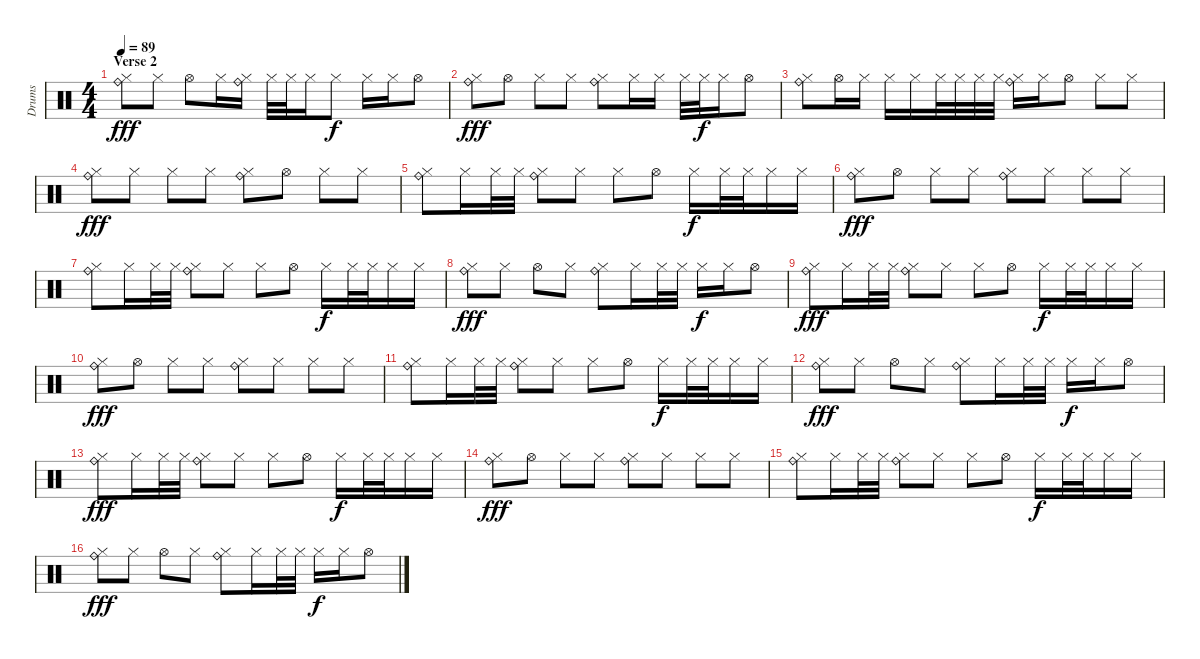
\track ("Drums" "Drums") {instrument percussion}
\staff {score}
\articulation defaults
\ts (4 4)
\section ("" "Verse 2")
\tempo 89
\clef neutral
\ks c
("Hi-Hat (closed)" "Ride (bell)").8{dy fff} "Hi-Hat (closed)".8 "Hi-Hat (open)".8 "Hi-Hat (closed)".16 ("Hi-Hat (closed)" "Ride (bell)").16 "Hi-Hat (closed)".32 "Hi-Hat (closed)".32 "Hi-Hat (closed)".16 "Hi-Hat (closed)".8{dy f} "Hi-Hat (closed)".16 "Hi-Hat (closed)".16 "Hi-Hat (open)".8 |
("Hi-Hat (closed)" "Ride (bell)").8{dy fff} "Hi-Hat (open)".8 "Hi-Hat (closed)".8 "Hi-Hat (closed)".8 ("Hi-Hat (closed)" "Ride (bell)").8 "Hi-Hat (closed)".16 "Hi-Hat (closed)".16 "Hi-Hat (closed)".32 "Hi-Hat (closed)".32{dy f} "Hi-Hat (closed)".16 "Hi-Hat (open)".8 |
("Hi-Hat (closed)" "Ride (bell)").8 "Hi-Hat (open)".16 "Hi-Hat (closed)".16 "Hi-Hat (closed)".16 "Hi-Hat (closed)".16 "Hi-Hat (closed)".32 "Hi-Hat (closed)".32 "Hi-Hat (closed)".32 "Hi-Hat (closed)".32 ("Hi-Hat (closed)" "Ride (bell)").16 "Hi-Hat (closed)".16 "Hi-Hat (open)".8 "Hi-Hat (closed)".8 "Hi-Hat (closed)".8 |
("Hi-Hat (closed)" "Ride (bell)").8{dy fff} "Hi-Hat (closed)".8 "Hi-Hat (closed)".8 "Hi-Hat (closed)".8 ("Hi-Hat (closed)" "Ride (bell)").8 "Hi-Hat (open)".8 "Hi-Hat (closed)".8 "Hi-Hat (closed)".8 |
("Hi-Hat (closed)" "Ride (bell)").8 "Hi-Hat (closed)".16 "Hi-Hat (closed)".32 "Hi-Hat (closed)".32 ("Hi-Hat (closed)" "Ride (bell)").8 "Hi-Hat (closed)".8 "Hi-Hat (closed)".8 "Hi-Hat (open)".8 "Hi-Hat (closed)".16{dy f} "Hi-Hat (closed)".32 "Hi-Hat (closed)".32 "Hi-Hat (closed)".16 "Hi-Hat (closed)".16 |
("Hi-Hat (closed)" "Ride (bell)").8{dy fff} "Hi-Hat (open)".8 "Hi-Hat (closed)".8 "Hi-Hat (closed)".8 ("Hi-Hat (closed)" "Ride (bell)").8 "Hi-Hat (closed)".8 "Hi-Hat (closed)".8 "Hi-Hat (closed)".8 |
("Hi-Hat (closed)" "Ride (bell)").8 "Hi-Hat (closed)".16 "Hi-Hat (closed)".32 "Hi-Hat (closed)".32 ("Hi-Hat (closed)" "Ride (bell)").8 "Hi-Hat (closed)".8 "Hi-Hat (closed)".8 "Hi-Hat (open)".8 "Hi-Hat (closed)".16{dy f} "Hi-Hat (closed)".32 "Hi-Hat (closed)".32 "Hi-Hat (closed)".16 "Hi-Hat (closed)".16 |
("Hi-Hat (closed)" "Ride (bell)").8{dy fff} "Hi-Hat (closed)".8 "Hi-Hat (open)".8 "Hi-Hat (closed)".8 ("Hi-Hat (closed)" "Ride (bell)").8 "Hi-Hat (closed)".16 "Hi-Hat (closed)".32 "Hi-Hat (closed)".32 "Hi-Hat (closed)".16{dy f} "Hi-Hat (closed)".16 "Hi-Hat (open)".8 |
("Hi-Hat (closed)" "Ride (bell)").8{dy fff} "Hi-Hat (closed)".16 "Hi-Hat (closed)".32 "Hi-Hat (closed)".32 ("Hi-Hat (closed)" "Ride (bell)").8 "Hi-Hat (closed)".8 "Hi-Hat (closed)".8 "Hi-Hat (open)".8 "Hi-Hat (closed)".16{dy f} "Hi-Hat (closed)".32 "Hi-Hat (closed)".32 "Hi-Hat (closed)".16 "Hi-Hat (closed)".16 |
("Hi-Hat (closed)" "Ride (bell)").8{dy fff} "Hi-Hat (open)".8 "Hi-Hat (closed)".8 "Hi-Hat (closed)".8 ("Hi-Hat (closed)" "Ride (bell)").8 "Hi-Hat (closed)".8 "Hi-Hat (closed)".8 "Hi-Hat (closed)".8 |
("Hi-Hat (closed)" "Ride (bell)").8 "Hi-Hat (closed)".16 "Hi-Hat (closed)".32 "Hi-Hat (closed)".32 ("Hi-Hat (closed)" "Ride (bell)").8 "Hi-Hat (closed)".8 "Hi-Hat (closed)".8 "Hi-Hat (open)".8 "Hi-Hat (closed)".16{dy f} "Hi-Hat (closed)".32 "Hi-Hat (closed)".32 "Hi-Hat (closed)".16 "Hi-Hat (closed)".16 |
("Hi-Hat (closed)" "Ride (bell)").8{dy fff} "Hi-Hat (closed)".8 "Hi-Hat (open)".8 "Hi-Hat (closed)".8 ("Hi-Hat (closed)" "Ride (bell)").8 "Hi-Hat (closed)".16 "Hi-Hat (closed)".32 "Hi-Hat (closed)".32 "Hi-Hat (closed)".16{dy f} "Hi-Hat (closed)".16 "Hi-Hat (open)".8 |
("Hi-Hat (closed)" "Ride (bell)").8{dy fff} "Hi-Hat (closed)".16 "Hi-Hat (closed)".32 "Hi-Hat (closed)".32 ("Hi-Hat (closed)" "Ride (bell)").8 "Hi-Hat (closed)".8 "Hi-Hat (closed)".8 "Hi-Hat (open)".8 "Hi-Hat (closed)".16{dy f} "Hi-Hat (closed)".32 "Hi-Hat (closed)".32 "Hi-Hat (closed)".16 "Hi-Hat (closed)".16 |
("Hi-Hat (closed)" "Ride (bell)").8{dy fff} "Hi-Hat (open)".8 "Hi-Hat (closed)".8 "Hi-Hat (closed)".8 ("Hi-Hat (closed)" "Ride (bell)").8 "Hi-Hat (closed)".8 "Hi-Hat (closed)".8 "Hi-Hat (closed)".8 |
("Hi-Hat (closed)" "Ride (bell)").8 "Hi-Hat (closed)".16 "Hi-Hat (closed)".32 "Hi-Hat (closed)".32 ("Hi-Hat (closed)" "Ride (bell)").8 "Hi-Hat (closed)".8 "Hi-Hat (closed)".8 "Hi-Hat (open)".8 "Hi-Hat (closed)".16{dy f} "Hi-Hat (closed)".32 "Hi-Hat (closed)".32 "Hi-Hat (closed)".16 "Hi-Hat (closed)".16 |
("Hi-Hat (closed)" "Ride (bell)").8{dy fff} "Hi-Hat (closed)".8 "Hi-Hat (open)".8 "Hi-Hat (closed)".8 ("Hi-Hat (closed)" "Ride (bell)").8 "Hi-Hat (closed)".16 "Hi-Hat (closed)".32 "Hi-Hat (closed)".32 "Hi-Hat (closed)".16{dy f} "Hi-Hat (closed)".16 "Hi-Hat (open)".8
